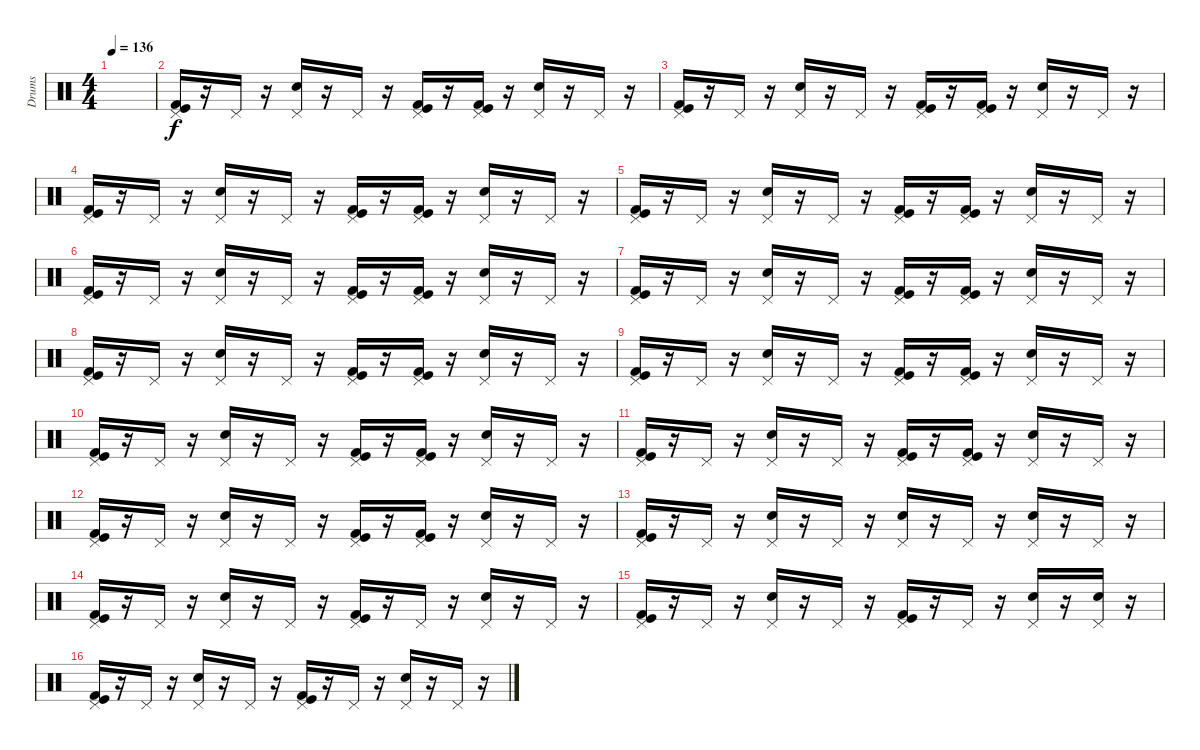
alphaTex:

\track ("Drums" "Drums") {instrument percussion}
\staff {score}
\articulation defaults
\ts (4 4)
\tempo 136
\clef neutral
\ks c
|
("Kick (hit) 2" "Kick (hit)" "Pedal Hi-Hat (hit)").16 r.16 "Pedal Hi-Hat (hit)".16 r.16 ("Electric Snare (hit)" "Pedal Hi-Hat (hit)").16 r.16 "Pedal Hi-Hat (hit)".16 r.16 ("Kick (hit) 2" "Kick (hit)" "Pedal Hi-Hat (hit)").16 r.16 ("Kick (hit) 2" "Kick (hit)" "Pedal Hi-Hat (hit)").16 r.16 ("Electric Snare (hit)" "Pedal Hi-Hat (hit)").16 r.16 "Pedal Hi-Hat (hit)".16 r.16 |
("Kick (hit) 2" "Kick (hit)" "Pedal Hi-Hat (hit)").16 r.16 "Pedal Hi-Hat (hit)".16 r.16 ("Electric Snare (hit)" "Pedal Hi-Hat (hit)").16 r.16 "Pedal Hi-Hat (hit)".16 r.16 ("Kick (hit) 2" "Kick (hit)" "Pedal Hi-Hat (hit)").16 r.16 ("Kick (hit) 2" "Kick (hit)" "Pedal Hi-Hat (hit)").16 r.16 ("Electric Snare (hit)" "Pedal Hi-Hat (hit)").16 r.16 "Pedal Hi-Hat (hit)".16 r.16 |
("Kick (hit) 2" "Kick (hit)" "Pedal Hi-Hat (hit)").16 r.16 "Pedal Hi-Hat (hit)".16 r.16 ("Electric Snare (hit)" "Pedal Hi-Hat (hit)").16 r.16 "Pedal Hi-Hat (hit)".16 r.16 ("Kick (hit) 2" "Kick (hit)" "Pedal Hi-Hat (hit)").16 r.16 ("Kick (hit) 2" "Kick (hit)" "Pedal Hi-Hat (hit)").16 r.16 ("Electric Snare (hit)" "Pedal Hi-Hat (hit)").16 r.16 "Pedal Hi-Hat (hit)".16 r.16 |
("Kick (hit) 2" "Kick (hit)" "Pedal Hi-Hat (hit)").16 r.16 "Pedal Hi-Hat (hit)".16 r.16 ("Electric Snare (hit)" "Pedal Hi-Hat (hit)").16 r.16 "Pedal Hi-Hat (hit)".16 r.16 ("Kick (hit) 2" "Kick (hit)" "Pedal Hi-Hat (hit)").16 r.16 ("Kick (hit) 2" "Kick (hit)" "Pedal Hi-Hat (hit)").16 r.16 ("Electric Snare (hit)" "Pedal Hi-Hat (hit)").16 r.16 "Pedal Hi-Hat (hit)".16 r.16 |
("Kick (hit) 2" "Kick (hit)" "Pedal Hi-Hat (hit)").16 r.16 "Pedal Hi-Hat (hit)".16 r.16 ("Electric Snare (hit)" "Pedal Hi-Hat (hit)").16 r.16 "Pedal Hi-Hat (hit)".16 r.16 ("Kick (hit) 2" "Kick (hit)" "Pedal Hi-Hat (hit)").16 r.16 ("Kick (hit) 2" "Kick (hit)" "Pedal Hi-Hat (hit)").16 r.16 ("Electric Snare (hit)" "Pedal Hi-Hat (hit)").16 r.16 "Pedal Hi-Hat (hit)".16 r.16 |
("Kick (hit) 2" "Kick (hit)" "Pedal Hi-Hat (hit)").16 r.16 "Pedal Hi-Hat (hit)".16 r.16 ("Electric Snare (hit)" "Pedal Hi-Hat (hit)").16 r.16 "Pedal Hi-Hat (hit)".16 r.16 ("Kick (hit) 2" "Kick (hit)" "Pedal Hi-Hat (hit)").16 r.16 ("Kick (hit) 2" "Kick (hit)" "Pedal Hi-Hat (hit)").16 r.16 ("Electric Snare (hit)" "Pedal Hi-Hat (hit)").16 r.16 "Pedal Hi-Hat (hit)".16 r.16 |
("Kick (hit) 2" "Kick (hit)" "Pedal Hi-Hat (hit)").16 r.16 "Pedal Hi-Hat (hit)".16 r.16 ("Electric Snare (hit)" "Pedal Hi-Hat (hit)").16 r.16 "Pedal Hi-Hat (hit)".16 r.16 ("Kick (hit) 2" "Kick (hit)" "Pedal Hi-Hat (hit)").16 r.16 ("Kick (hit) 2" "Kick (hit)" "Pedal Hi-Hat (hit)").16 r.16 ("Electric Snare (hit)" "Pedal Hi-Hat (hit)").16 r.16 "Pedal Hi-Hat (hit)".16 r.16 |
("Kick (hit) 2" "Kick (hit)" "Pedal Hi-Hat (hit)").16 r.16 "Pedal Hi-Hat (hit)".16 r.16 ("Electric Snare (hit)" "Pedal Hi-Hat (hit)").16 r.16 "Pedal Hi-Hat (hit)".16 r.16 ("Kick (hit) 2" "Kick (hit)" "Pedal Hi-Hat (hit)").16 r.16 ("Kick (hit) 2" "Kick (hit)" "Pedal Hi-Hat (hit)").16 r.16 ("Electric Snare (hit)" "Pedal Hi-Hat (hit)").16 r.16 "Pedal Hi-Hat (hit)".16 r.16 |
("Kick (hit) 2" "Kick (hit)" "Pedal Hi-Hat (hit)").16 r.16 "Pedal Hi-Hat (hit)".16 r.16 ("Electric Snare (hit)" "Pedal Hi-Hat (hit)").16 r.16 "Pedal Hi-Hat (hit)".16 r.16 ("Kick (hit) 2" "Kick (hit)" "Pedal Hi-Hat (hit)").16 r.16 ("Kick (hit) 2" "Kick (hit)" "Pedal Hi-Hat (hit)").16 r.16 ("Electric Snare (hit)" "Pedal Hi-Hat (hit)").16 r.16 "Pedal Hi-Hat (hit)".16 r.16 |
("Kick (hit) 2" "Kick (hit)" "Pedal Hi-Hat (hit)").16 r.16 "Pedal Hi-Hat (hit)".16 r.16 ("Electric Snare (hit)" "Pedal Hi-Hat (hit)").16 r.16 "Pedal Hi-Hat (hit)".16 r.16 ("Kick (hit) 2" "Kick (hit)" "Pedal Hi-Hat (hit)").16 r.16 ("Kick (hit) 2" "Kick (hit)" "Pedal Hi-Hat (hit)").16 r.16 ("Electric Snare (hit)" "Pedal Hi-Hat (hit)").16 r.16 "Pedal Hi-Hat (hit)".16 r.16 |
("Kick (hit) 2" "Kick (hit)" "Pedal Hi-Hat (hit)").16 r.16 "Pedal Hi-Hat (hit)".16 r.16 ("Electric Snare (hit)" "Pedal Hi-Hat (hit)").16 r.16 "Pedal Hi-Hat (hit)".16 r.16 ("Kick (hit) 2" "Kick (hit)" "Pedal Hi-Hat (hit)").16 r.16 ("Kick (hit) 2" "Kick (hit)" "Pedal Hi-Hat (hit)").16 r.16 ("Electric Snare (hit)" "Pedal Hi-Hat (hit)").16 r.16 "Pedal Hi-Hat (hit)".16 r.16 |
("Kick (hit) 2" "Kick (hit)" "Pedal Hi-Hat (hit)").16 r.16 "Pedal Hi-Hat (hit)".16 r.16 ("Electric Snare (hit)" "Pedal Hi-Hat (hit)").16 r.16 "Pedal Hi-Hat (hit)".16 r.16 ("Snare (hit) 2" "Pedal Hi-Hat (hit)").16 r.16 "Pedal Hi-Hat (hit)".16 r.16 ("Snare (hit) 2" "Pedal Hi-Hat (hit)").16 r.16 "Pedal Hi-Hat (hit)".16 r.16 |
("Kick (hit) 2" "Kick (hit)" "Pedal Hi-Hat (hit)").16 r.16 "Pedal Hi-Hat (hit)".16 r.16 ("Snare (hit) 2" "Pedal Hi-Hat (hit)").16 r.16 "Pedal Hi-Hat (hit)".16 r.16 ("Kick (hit) 2" "Kick (hit)" "Pedal Hi-Hat (hit)").16 r.16 "Pedal Hi-Hat (hit)".16 r.16 ("Snare (hit) 2" "Pedal Hi-Hat (hit)").16 r.16 "Pedal Hi-Hat (hit)".16 r.16 |
("Kick (hit) 2" "Kick (hit)" "Pedal Hi-Hat (hit)").16 r.16 "Pedal Hi-Hat (hit)".16 r.16 ("Snare (hit) 2" "Pedal Hi-Hat (hit)").16 r.16 "Pedal Hi-Hat (hit)".16 r.16 ("Kick (hit) 2" "Kick (hit)" "Pedal Hi-Hat (hit)").16 r.16 "Pedal Hi-Hat (hit)".16 r.16 ("Snare (hit) 2" "Pedal Hi-Hat (hit)").16 r.16 ("Snare (hit) 2" "Pedal Hi-Hat (hit)").16 r.16 |
("Kick (hit) 2" "Kick (hit)" "Pedal Hi-Hat (hit)").16 r.16 "Pedal Hi-Hat (hit)".16 r.16 ("Snare (hit) 2" "Pedal Hi-Hat (hit)").16 r.16 "Pedal Hi-Hat (hit)".16 r.16 ("Kick (hit) 2" "Kick (hit)" "Pedal Hi-Hat (hit)").16 r.16 "Pedal Hi-Hat (hit)".16 r.16 ("Snare (hit) 2" "Pedal Hi-Hat (hit)").16 r.16 "Pedal Hi-Hat (hit)".16 r.16
